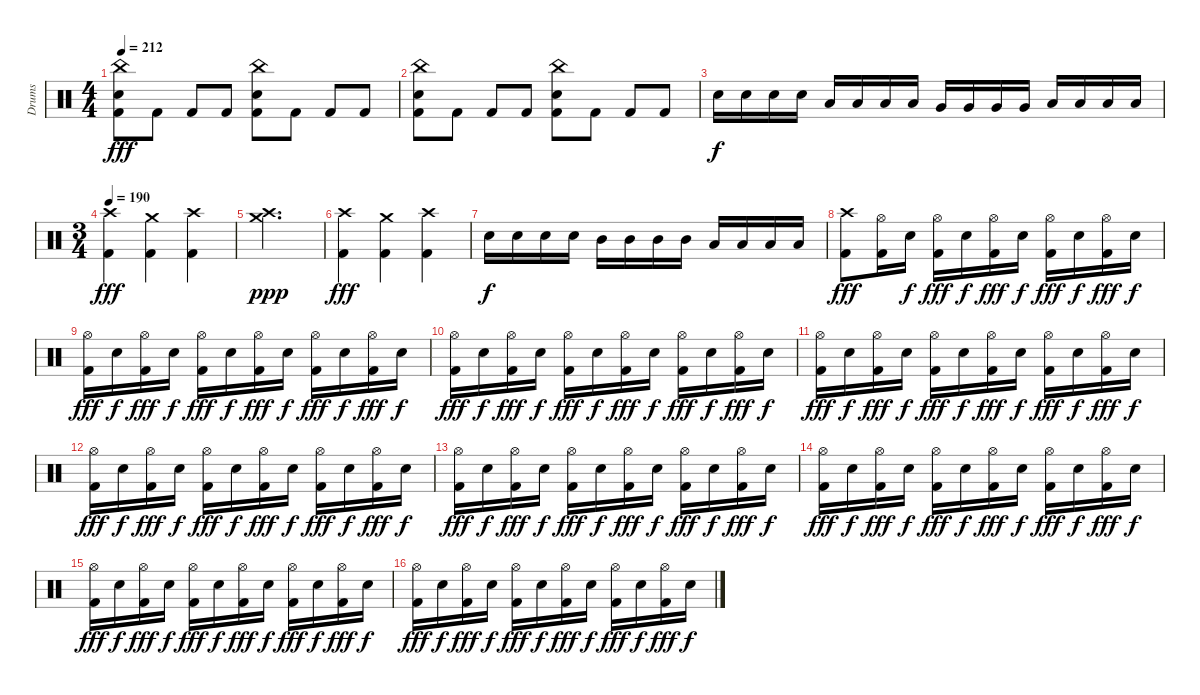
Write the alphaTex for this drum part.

\track ("Drums" "Drums") {instrument percussion}
\staff {score}
\articulation defaults
\ts (4 4)
\tempo 212
\clef neutral
\ks c
("China (hit)" "Snare (hit) 2" "Kick (hit) 2").8{dy fff} "Kick (hit) 2".8 "Kick (hit) 2".8 "Kick (hit) 2".8 ("China (hit)" "Snare (hit) 2" "Kick (hit) 2").8 "Kick (hit) 2".8 "Kick (hit) 2".8 "Kick (hit) 2".8 |
("China (hit)" "Snare (hit) 2" "Kick (hit) 2").8 "Kick (hit) 2".8 "Kick (hit) 2".8 "Kick (hit) 2".8 ("China (hit)" "Snare (hit) 2" "Kick (hit) 2").8 "Kick (hit) 2".8 "Kick (hit) 2".8 "Kick (hit) 2".8 |
"Snare (hit) 2".16{dy f} "Snare (hit) 2".16 "Snare (hit) 2".16 "Snare (hit) 2".16 "Low Tom (hit)".16 "Low Tom (hit)".16 "Low Tom (hit)".16 "Low Tom (hit)".16 "Very Low Tom (hit)".16 "Very Low Tom (hit)".16 "Very Low Tom (hit)".16 "Very Low Tom (hit)".16 "Low Floor Tom (hit)".16 "Low Floor Tom (hit)".16 "Low Floor Tom (hit)".16 "Low Floor Tom (hit)".16 |
\ts (3 4)
\tempo 190
("Crash high (hit)" "Kick (hit) 2").4{dy fff} ("Crash medium (hit)" "Kick (hit) 2").4 ("Crash high (hit)" "Kick (hit) 2").4 |
("Crash high (hit)" "Crash medium (hit)").2{d dy ppp} |
("Crash high (hit)" "Kick (hit) 2").4{dy fff} ("Crash medium (hit)" "Kick (hit) 2").4 ("Crash high (hit)" "Kick (hit) 2").4 |
"Snare (hit) 2".16{dy f} "Snare (hit) 2".16 "Snare (hit) 2".16 "Snare (hit) 2".16 "Mid Tom (hit)".16 "Mid Tom (hit)".16 "Mid Tom (hit)".16 "Mid Tom (hit)".16 "Low Tom (hit)".16 "Low Tom (hit)".16 "Low Tom (hit)".16 "Low Tom (hit)".16 |
("Crash high (hit)" "Kick (hit) 2").8{dy fff} ("Hi-Hat (open)" "Kick (hit) 2").16 "Snare (hit) 2".16{dy f} ("Hi-Hat (open)" "Kick (hit) 2").16{dy fff} "Snare (hit) 2".16{dy f} ("Hi-Hat (open)" "Kick (hit) 2").16{dy fff} "Snare (hit) 2".16{dy f} ("Hi-Hat (open)" "Kick (hit) 2").16{dy fff} "Snare (hit) 2".16{dy f} ("Hi-Hat (open)" "Kick (hit) 2").16{dy fff} "Snare (hit) 2".16{dy f} |
("Hi-Hat (open)" "Kick (hit) 2").16{dy fff} "Snare (hit) 2".16{dy f} ("Hi-Hat (open)" "Kick (hit) 2").16{dy fff} "Snare (hit) 2".16{dy f} ("Hi-Hat (open)" "Kick (hit) 2").16{dy fff} "Snare (hit) 2".16{dy f} ("Hi-Hat (open)" "Kick (hit) 2").16{dy fff} "Snare (hit) 2".16{dy f} ("Hi-Hat (open)" "Kick (hit) 2").16{dy fff} "Snare (hit) 2".16{dy f} ("Hi-Hat (open)" "Kick (hit) 2").16{dy fff} "Snare (hit) 2".16{dy f} |
("Hi-Hat (open)" "Kick (hit) 2").16{dy fff} "Snare (hit) 2".16{dy f} ("Hi-Hat (open)" "Kick (hit) 2").16{dy fff} "Snare (hit) 2".16{dy f} ("Hi-Hat (open)" "Kick (hit) 2").16{dy fff} "Snare (hit) 2".16{dy f} ("Hi-Hat (open)" "Kick (hit) 2").16{dy fff} "Snare (hit) 2".16{dy f} ("Hi-Hat (open)" "Kick (hit) 2").16{dy fff} "Snare (hit) 2".16{dy f} ("Hi-Hat (open)" "Kick (hit) 2").16{dy fff} "Snare (hit) 2".16{dy f} |
("Hi-Hat (open)" "Kick (hit) 2").16{dy fff} "Snare (hit) 2".16{dy f} ("Hi-Hat (open)" "Kick (hit) 2").16{dy fff} "Snare (hit) 2".16{dy f} ("Hi-Hat (open)" "Kick (hit) 2").16{dy fff} "Snare (hit) 2".16{dy f} ("Hi-Hat (open)" "Kick (hit) 2").16{dy fff} "Snare (hit) 2".16{dy f} ("Hi-Hat (open)" "Kick (hit) 2").16{dy fff} "Snare (hit) 2".16{dy f} ("Hi-Hat (open)" "Kick (hit) 2").16{dy fff} "Snare (hit) 2".16{dy f} |
("Hi-Hat (open)" "Kick (hit) 2").16{dy fff} "Snare (hit) 2".16{dy f} ("Hi-Hat (open)" "Kick (hit) 2").16{dy fff} "Snare (hit) 2".16{dy f} ("Hi-Hat (open)" "Kick (hit) 2").16{dy fff} "Snare (hit) 2".16{dy f} ("Hi-Hat (open)" "Kick (hit) 2").16{dy fff} "Snare (hit) 2".16{dy f} ("Hi-Hat (open)" "Kick (hit) 2").16{dy fff} "Snare (hit) 2".16{dy f} ("Hi-Hat (open)" "Kick (hit) 2").16{dy fff} "Snare (hit) 2".16{dy f} |
("Hi-Hat (open)" "Kick (hit) 2").16{dy fff} "Snare (hit) 2".16{dy f} ("Hi-Hat (open)" "Kick (hit) 2").16{dy fff} "Snare (hit) 2".16{dy f} ("Hi-Hat (open)" "Kick (hit) 2").16{dy fff} "Snare (hit) 2".16{dy f} ("Hi-Hat (open)" "Kick (hit) 2").16{dy fff} "Snare (hit) 2".16{dy f} ("Hi-Hat (open)" "Kick (hit) 2").16{dy fff} "Snare (hit) 2".16{dy f} ("Hi-Hat (open)" "Kick (hit) 2").16{dy fff} "Snare (hit) 2".16{dy f} |
("Hi-Hat (open)" "Kick (hit) 2").16{dy fff} "Snare (hit) 2".16{dy f} ("Hi-Hat (open)" "Kick (hit) 2").16{dy fff} "Snare (hit) 2".16{dy f} ("Hi-Hat (open)" "Kick (hit) 2").16{dy fff} "Snare (hit) 2".16{dy f} ("Hi-Hat (open)" "Kick (hit) 2").16{dy fff} "Snare (hit) 2".16{dy f} ("Hi-Hat (open)" "Kick (hit) 2").16{dy fff} "Snare (hit) 2".16{dy f} ("Hi-Hat (open)" "Kick (hit) 2").16{dy fff} "Snare (hit) 2".16{dy f} |
("Hi-Hat (open)" "Kick (hit) 2").16{dy fff} "Snare (hit) 2".16{dy f} ("Hi-Hat (open)" "Kick (hit) 2").16{dy fff} "Snare (hit) 2".16{dy f} ("Hi-Hat (open)" "Kick (hit) 2").16{dy fff} "Snare (hit) 2".16{dy f} ("Hi-Hat (open)" "Kick (hit) 2").16{dy fff} "Snare (hit) 2".16{dy f} ("Hi-Hat (open)" "Kick (hit) 2").16{dy fff} "Snare (hit) 2".16{dy f} ("Hi-Hat (open)" "Kick (hit) 2").16{dy fff} "Snare (hit) 2".16{dy f} |
("Hi-Hat (open)" "Kick (hit) 2").16{dy fff} "Snare (hit) 2".16{dy f} ("Hi-Hat (open)" "Kick (hit) 2").16{dy fff} "Snare (hit) 2".16{dy f} ("Hi-Hat (open)" "Kick (hit) 2").16{dy fff} "Snare (hit) 2".16{dy f} ("Hi-Hat (open)" "Kick (hit) 2").16{dy fff} "Snare (hit) 2".16{dy f} ("Hi-Hat (open)" "Kick (hit) 2").16{dy fff} "Snare (hit) 2".16{dy f} ("Hi-Hat (open)" "Kick (hit) 2").16{dy fff} "Snare (hit) 2".16{dy f}
